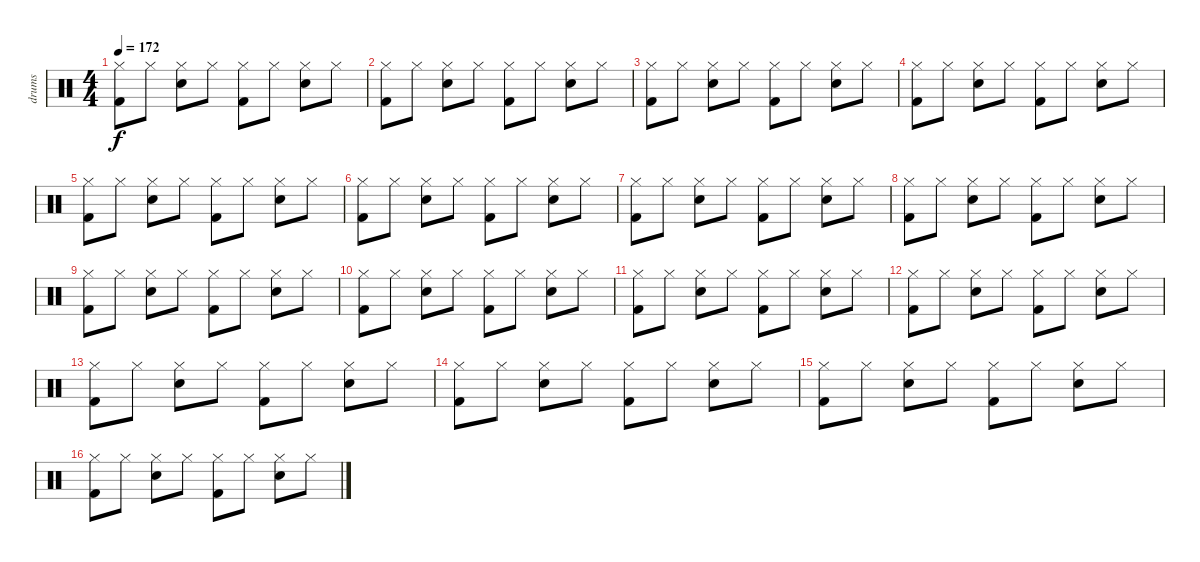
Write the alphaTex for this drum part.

\track ("drums" "drums") {instrument percussion}
\staff {score}
\articulation defaults
\ts (4 4)
\tempo 172
\clef neutral
\ks c
("Hi-Hat (closed)" "Kick (hit) 2").8{dy f} "Hi-Hat (closed)".8 ("Hi-Hat (closed)" "Snare (hit) 2").8 "Hi-Hat (closed)".8 ("Hi-Hat (closed)" "Kick (hit) 2").8 "Hi-Hat (closed)".8 ("Hi-Hat (closed)" "Snare (hit) 2").8 "Hi-Hat (closed)".8 |
("Hi-Hat (closed)" "Kick (hit) 2").8 "Hi-Hat (closed)".8 ("Hi-Hat (closed)" "Snare (hit) 2").8 "Hi-Hat (closed)".8 ("Hi-Hat (closed)" "Kick (hit) 2").8 "Hi-Hat (closed)".8 ("Hi-Hat (closed)" "Snare (hit) 2").8 "Hi-Hat (closed)".8 |
("Hi-Hat (closed)" "Kick (hit) 2").8 "Hi-Hat (closed)".8 ("Hi-Hat (closed)" "Snare (hit) 2").8 "Hi-Hat (closed)".8 ("Hi-Hat (closed)" "Kick (hit) 2").8 "Hi-Hat (closed)".8 ("Hi-Hat (closed)" "Snare (hit) 2").8 "Hi-Hat (closed)".8 |
("Hi-Hat (closed)" "Kick (hit) 2").8 "Hi-Hat (closed)".8 ("Hi-Hat (closed)" "Snare (hit) 2").8 "Hi-Hat (closed)".8 ("Hi-Hat (closed)" "Kick (hit) 2").8 "Hi-Hat (closed)".8 ("Hi-Hat (closed)" "Snare (hit) 2").8 "Hi-Hat (closed)".8 |
("Hi-Hat (closed)" "Kick (hit) 2").8 "Hi-Hat (closed)".8 ("Hi-Hat (closed)" "Snare (hit) 2").8 "Hi-Hat (closed)".8 ("Hi-Hat (closed)" "Kick (hit) 2").8 "Hi-Hat (closed)".8 ("Hi-Hat (closed)" "Snare (hit) 2").8 "Hi-Hat (closed)".8 |
("Hi-Hat (closed)" "Kick (hit) 2").8 "Hi-Hat (closed)".8 ("Hi-Hat (closed)" "Snare (hit) 2").8 "Hi-Hat (closed)".8 ("Hi-Hat (closed)" "Kick (hit) 2").8 "Hi-Hat (closed)".8 ("Hi-Hat (closed)" "Snare (hit) 2").8 "Hi-Hat (closed)".8 |
("Hi-Hat (closed)" "Kick (hit) 2").8 "Hi-Hat (closed)".8 ("Hi-Hat (closed)" "Snare (hit) 2").8 "Hi-Hat (closed)".8 ("Hi-Hat (closed)" "Kick (hit) 2").8 "Hi-Hat (closed)".8 ("Hi-Hat (closed)" "Snare (hit) 2").8 "Hi-Hat (closed)".8 |
("Hi-Hat (closed)" "Kick (hit) 2").8 "Hi-Hat (closed)".8 ("Hi-Hat (closed)" "Snare (hit) 2").8 "Hi-Hat (closed)".8 ("Hi-Hat (closed)" "Kick (hit) 2").8 "Hi-Hat (closed)".8 ("Hi-Hat (closed)" "Snare (hit) 2").8 "Hi-Hat (closed)".8 |
("Hi-Hat (closed)" "Kick (hit) 2").8 "Hi-Hat (closed)".8 ("Hi-Hat (closed)" "Snare (hit) 2").8 "Hi-Hat (closed)".8 ("Hi-Hat (closed)" "Kick (hit) 2").8 "Hi-Hat (closed)".8 ("Hi-Hat (closed)" "Snare (hit) 2").8 "Hi-Hat (closed)".8 |
("Hi-Hat (closed)" "Kick (hit) 2").8 "Hi-Hat (closed)".8 ("Hi-Hat (closed)" "Snare (hit) 2").8 "Hi-Hat (closed)".8 ("Hi-Hat (closed)" "Kick (hit) 2").8 "Hi-Hat (closed)".8 ("Hi-Hat (closed)" "Snare (hit) 2").8 "Hi-Hat (closed)".8 |
("Hi-Hat (closed)" "Kick (hit) 2").8 "Hi-Hat (closed)".8 ("Hi-Hat (closed)" "Snare (hit) 2").8 "Hi-Hat (closed)".8 ("Hi-Hat (closed)" "Kick (hit) 2").8 "Hi-Hat (closed)".8 ("Hi-Hat (closed)" "Snare (hit) 2").8 "Hi-Hat (closed)".8 |
("Hi-Hat (closed)" "Kick (hit) 2").8 "Hi-Hat (closed)".8 ("Hi-Hat (closed)" "Snare (hit) 2").8 "Hi-Hat (closed)".8 ("Hi-Hat (closed)" "Kick (hit) 2").8 "Hi-Hat (closed)".8 ("Hi-Hat (closed)" "Snare (hit) 2").8 "Hi-Hat (closed)".8 |
("Hi-Hat (closed)" "Kick (hit) 2").8 "Hi-Hat (closed)".8 ("Hi-Hat (closed)" "Snare (hit) 2").8 "Hi-Hat (closed)".8 ("Hi-Hat (closed)" "Kick (hit) 2").8 "Hi-Hat (closed)".8 ("Hi-Hat (closed)" "Snare (hit) 2").8 "Hi-Hat (closed)".8 |
("Hi-Hat (closed)" "Kick (hit) 2").8 "Hi-Hat (closed)".8 ("Hi-Hat (closed)" "Snare (hit) 2").8 "Hi-Hat (closed)".8 ("Hi-Hat (closed)" "Kick (hit) 2").8 "Hi-Hat (closed)".8 ("Hi-Hat (closed)" "Snare (hit) 2").8 "Hi-Hat (closed)".8 |
("Hi-Hat (closed)" "Kick (hit) 2").8 "Hi-Hat (closed)".8 ("Hi-Hat (closed)" "Snare (hit) 2").8 "Hi-Hat (closed)".8 ("Hi-Hat (closed)" "Kick (hit) 2").8 "Hi-Hat (closed)".8 ("Hi-Hat (closed)" "Snare (hit) 2").8 "Hi-Hat (closed)".8 |
("Hi-Hat (closed)" "Kick (hit) 2").8 "Hi-Hat (closed)".8 ("Hi-Hat (closed)" "Snare (hit) 2").8 "Hi-Hat (closed)".8 ("Hi-Hat (closed)" "Kick (hit) 2").8 "Hi-Hat (closed)".8 ("Hi-Hat (closed)" "Snare (hit) 2").8 "Hi-Hat (closed)".8
